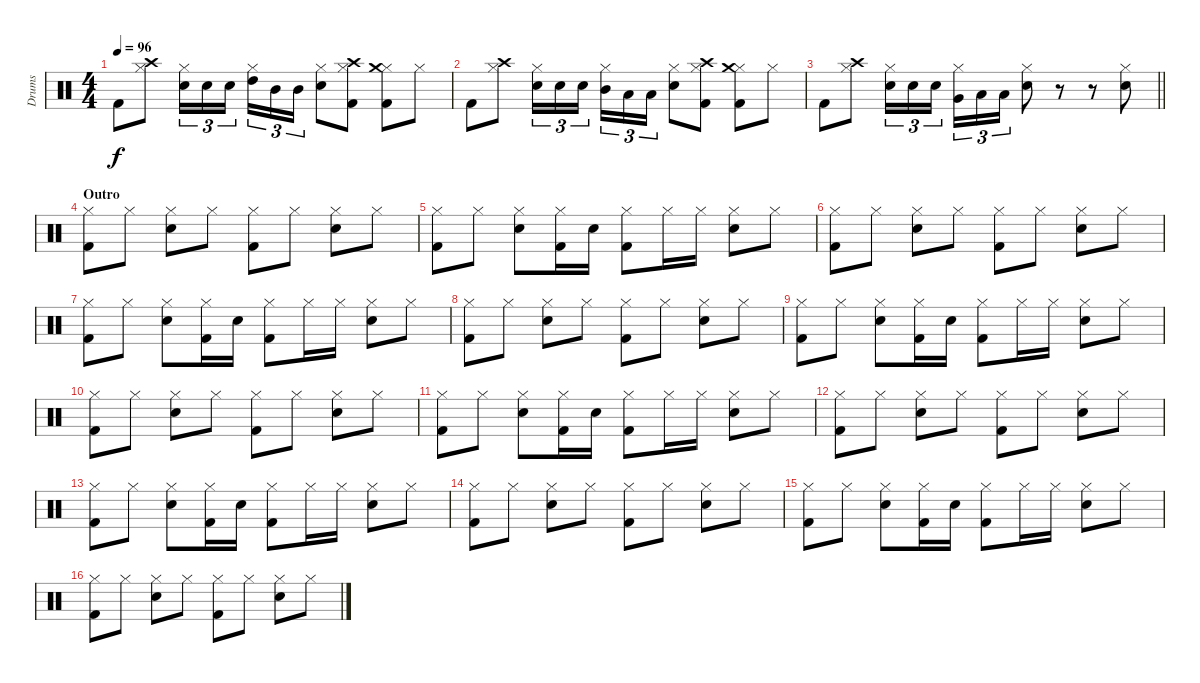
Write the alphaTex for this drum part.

\track ("Drums" "Drums") {instrument percussion}
\staff {score}
\articulation defaults
\ts (4 4)
\tempo 96
\clef neutral
\ks c "Kick (hit) 2".8{dy f}
("Hi-Hat (closed)" "Crash high (hit)").8 ("Snare (hit) 2" "Hi-Hat (closed)").16{tu (3 2)} "Snare (hit) 2".16{tu (3 2)} "Snare (hit) 2".16{tu (3 2) beam splitsecondary} ("Hi-Hat (closed)" "High Tom (hit)").16{tu (3 2)} "Mid Tom (hit)".16{tu (3 2)} "Mid Tom (hit)".16{tu (3 2)} ("Snare (hit) 2" "Hi-Hat (closed)").8 ("Kick (hit) 2" "Hi-Hat (closed)" "Crash high (hit)").8 ("Kick (hit) 2" "Hi-Hat (closed)" "Crash medium (hit)").8 "Hi-Hat (closed)".8 |
"Kick (hit) 2".8 ("Hi-Hat (closed)" "Crash high (hit)").8 ("Snare (hit) 2" "Hi-Hat (closed)").16{tu (3 2)} "Snare (hit) 2".16{tu (3 2)} "Snare (hit) 2".16{tu (3 2) beam splitsecondary} ("Hi-Hat (closed)" "Mid Tom (hit)").16{tu (3 2)} "Low Tom (hit)".16{tu (3 2)} "Low Tom (hit)".16{tu (3 2)} ("Snare (hit) 2" "Hi-Hat (closed)").8 ("Kick (hit) 2" "Hi-Hat (closed)" "Crash high (hit)").8 ("Kick (hit) 2" "Hi-Hat (closed)" "Crash medium (hit)").8 "Hi-Hat (closed)".8 |
\barLineRight lightlight "Kick (hit) 2".8
("Hi-Hat (closed)" "Crash high (hit)").8 ("Snare (hit) 2" "Hi-Hat (closed)").16{tu (3 2)} "Snare (hit) 2".16{tu (3 2)} "Snare (hit) 2".16{tu (3 2) beam splitsecondary} ("Hi-Hat (closed)" "Very Low Tom (hit)").16{tu (3 2)} "Low Floor Tom (hit)".16{tu (3 2)} "Low Floor Tom (hit)".16{tu (3 2)} ("Snare (hit) 2" "Hi-Hat (closed)").8 r.8 r.8 ("Snare (hit) 2" "Hi-Hat (closed)").8 |
\section ("" "Outro")
("Kick (hit) 2" "Hi-Hat (closed)").8 "Hi-Hat (closed)".8 ("Snare (hit) 2" "Hi-Hat (closed)").8 "Hi-Hat (closed)".8 ("Kick (hit) 2" "Hi-Hat (closed)").8 "Hi-Hat (closed)".8 ("Snare (hit) 2" "Hi-Hat (closed)").8 "Hi-Hat (closed)".8 |
("Kick (hit) 2" "Hi-Hat (closed)").8 "Hi-Hat (closed)".8 ("Snare (hit) 2" "Hi-Hat (closed)").8 ("Kick (hit) 2" "Hi-Hat (closed)").16 "Snare (hit) 2".16 ("Kick (hit) 2" "Hi-Hat (closed)").8 "Hi-Hat (closed)".16 "Hi-Hat (closed)".16 ("Snare (hit) 2" "Hi-Hat (closed)").8 "Hi-Hat (closed)".8 |
("Kick (hit) 2" "Hi-Hat (closed)").8 "Hi-Hat (closed)".8 ("Snare (hit) 2" "Hi-Hat (closed)").8 "Hi-Hat (closed)".8 ("Kick (hit) 2" "Hi-Hat (closed)").8 "Hi-Hat (closed)".8 ("Snare (hit) 2" "Hi-Hat (closed)").8 "Hi-Hat (closed)".8 |
("Kick (hit) 2" "Hi-Hat (closed)").8 "Hi-Hat (closed)".8 ("Snare (hit) 2" "Hi-Hat (closed)").8 ("Kick (hit) 2" "Hi-Hat (closed)").16 "Snare (hit) 2".16 ("Kick (hit) 2" "Hi-Hat (closed)").8 "Hi-Hat (closed)".16 "Hi-Hat (closed)".16 ("Snare (hit) 2" "Hi-Hat (closed)").8 "Hi-Hat (closed)".8 |
("Kick (hit) 2" "Hi-Hat (closed)").8 "Hi-Hat (closed)".8 ("Snare (hit) 2" "Hi-Hat (closed)").8 "Hi-Hat (closed)".8 ("Kick (hit) 2" "Hi-Hat (closed)").8 "Hi-Hat (closed)".8 ("Snare (hit) 2" "Hi-Hat (closed)").8 "Hi-Hat (closed)".8 |
("Kick (hit) 2" "Hi-Hat (closed)").8 "Hi-Hat (closed)".8 ("Snare (hit) 2" "Hi-Hat (closed)").8 ("Kick (hit) 2" "Hi-Hat (closed)").16 "Snare (hit) 2".16 ("Kick (hit) 2" "Hi-Hat (closed)").8 "Hi-Hat (closed)".16 "Hi-Hat (closed)".16 ("Snare (hit) 2" "Hi-Hat (closed)").8 "Hi-Hat (closed)".8 |
("Kick (hit) 2" "Hi-Hat (closed)").8 "Hi-Hat (closed)".8 ("Snare (hit) 2" "Hi-Hat (closed)").8 "Hi-Hat (closed)".8 ("Kick (hit) 2" "Hi-Hat (closed)").8 "Hi-Hat (closed)".8 ("Snare (hit) 2" "Hi-Hat (closed)").8 "Hi-Hat (closed)".8 |
("Kick (hit) 2" "Hi-Hat (closed)").8 "Hi-Hat (closed)".8 ("Snare (hit) 2" "Hi-Hat (closed)").8 ("Kick (hit) 2" "Hi-Hat (closed)").16 "Snare (hit) 2".16 ("Kick (hit) 2" "Hi-Hat (closed)").8 "Hi-Hat (closed)".16 "Hi-Hat (closed)".16 ("Snare (hit) 2" "Hi-Hat (closed)").8 "Hi-Hat (closed)".8 |
("Kick (hit) 2" "Hi-Hat (closed)").8 "Hi-Hat (closed)".8 ("Snare (hit) 2" "Hi-Hat (closed)").8 "Hi-Hat (closed)".8 ("Kick (hit) 2" "Hi-Hat (closed)").8 "Hi-Hat (closed)".8 ("Snare (hit) 2" "Hi-Hat (closed)").8 "Hi-Hat (closed)".8 |
("Kick (hit) 2" "Hi-Hat (closed)").8 "Hi-Hat (closed)".8 ("Snare (hit) 2" "Hi-Hat (closed)").8 ("Kick (hit) 2" "Hi-Hat (closed)").16 "Snare (hit) 2".16 ("Kick (hit) 2" "Hi-Hat (closed)").8 "Hi-Hat (closed)".16 "Hi-Hat (closed)".16 ("Snare (hit) 2" "Hi-Hat (closed)").8 "Hi-Hat (closed)".8 |
("Kick (hit) 2" "Hi-Hat (closed)").8 "Hi-Hat (closed)".8 ("Snare (hit) 2" "Hi-Hat (closed)").8 "Hi-Hat (closed)".8 ("Kick (hit) 2" "Hi-Hat (closed)").8 "Hi-Hat (closed)".8 ("Snare (hit) 2" "Hi-Hat (closed)").8 "Hi-Hat (closed)".8 |
("Kick (hit) 2" "Hi-Hat (closed)").8 "Hi-Hat (closed)".8 ("Snare (hit) 2" "Hi-Hat (closed)").8 ("Kick (hit) 2" "Hi-Hat (closed)").16 "Snare (hit) 2".16 ("Kick (hit) 2" "Hi-Hat (closed)").8 "Hi-Hat (closed)".16 "Hi-Hat (closed)".16 ("Snare (hit) 2" "Hi-Hat (closed)").8 "Hi-Hat (closed)".8 |
("Kick (hit) 2" "Hi-Hat (closed)").8 "Hi-Hat (closed)".8 ("Snare (hit) 2" "Hi-Hat (closed)").8 "Hi-Hat (closed)".8 ("Kick (hit) 2" "Hi-Hat (closed)").8 "Hi-Hat (closed)".8 ("Snare (hit) 2" "Hi-Hat (closed)").8 "Hi-Hat (closed)".8
